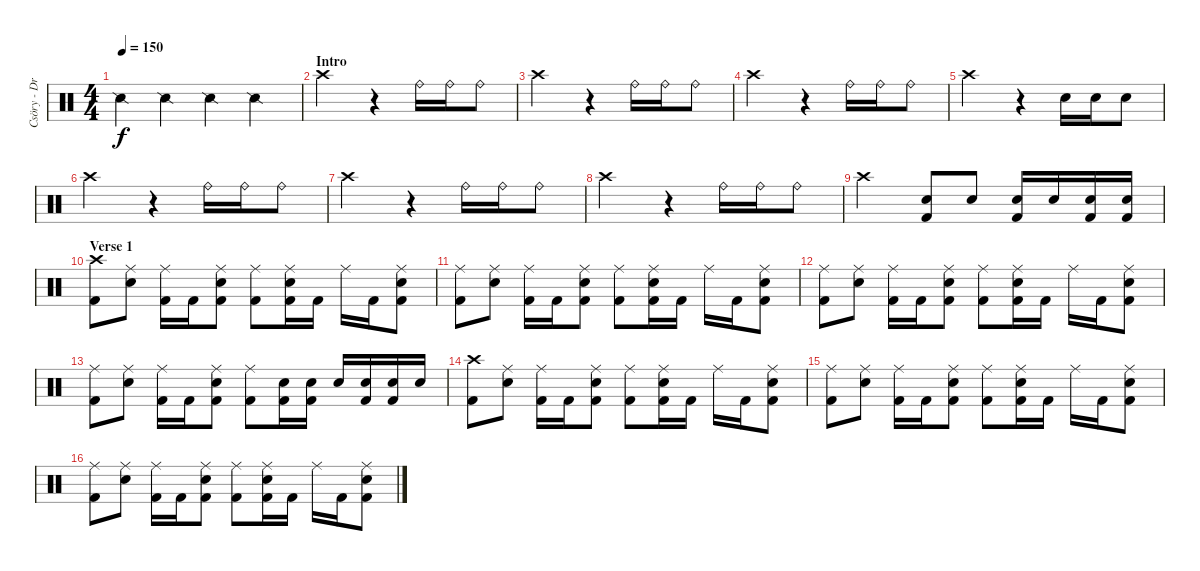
\track ("Csöry - DrumZ" "Csöry - Dr") {instrument percussion}
\staff {score}
\articulation defaults
\ts (4 4)
\tempo 150
\clef neutral
\ks c "Snare (side stick) 2".4{dy f} "Snare (side stick) 2".4 "Snare (side stick) 2".4 "Snare (side stick) 2".4
|
\section ("" "Intro")
"Crash high (hit)".2 r.4 "Ride (bell)".16 "Ride (bell)".16 "Ride (bell)".8 |
"Crash high (hit)".2 r.4 "Ride (bell)".16 "Ride (bell)".16 "Ride (bell)".8 |
"Crash high (hit)".2 r.4 "Ride (bell)".16 "Ride (bell)".16 "Ride (bell)".8 |
"Crash high (hit)".2 r.4 "Snare (hit) 2".16 "Snare (hit) 2".16 "Snare (hit) 2".8 |
"Crash high (hit)".2 r.4 "Ride (bell)".16 "Ride (bell)".16 "Ride (bell)".8 |
"Crash high (hit)".2 r.4 "Ride (bell)".16 "Ride (bell)".16 "Ride (bell)".8 |
"Crash high (hit)".2 r.4 "Ride (bell)".16 "Ride (bell)".16 "Ride (bell)".8 |
"Crash high (hit)".2 ("Snare (hit) 2" "Kick (hit) 2").8 "Snare (hit) 2".8 ("Snare (hit) 2" "Kick (hit) 2").16 "Snare (hit) 2".16 ("Snare (hit) 2" "Kick (hit) 2").16 ("Snare (hit) 2" "Kick (hit) 2").16 |
\section ("" "Verse 1")
("Crash high (hit)" "Kick (hit) 2").8 ("Ride (middle)" "Snare (hit) 2").8 ("Ride (middle)" "Kick (hit) 2").16 "Kick (hit) 2".16 ("Ride (middle)" "Snare (hit) 2" "Kick (hit) 2").8 ("Ride (middle)" "Kick (hit) 2").8 ("Ride (middle)" "Snare (hit) 2" "Kick (hit) 2").16 "Kick (hit) 2".16 "Ride (middle)".16 "Kick (hit) 2".16 ("Ride (middle)" "Snare (hit) 2" "Kick (hit) 2").8 |
("Ride (middle)" "Kick (hit) 2").8 ("Ride (middle)" "Snare (hit) 2").8 ("Ride (middle)" "Kick (hit) 2").16 "Kick (hit) 2".16 ("Ride (middle)" "Snare (hit) 2" "Kick (hit) 2").8 ("Ride (middle)" "Kick (hit) 2").8 ("Ride (middle)" "Snare (hit) 2" "Kick (hit) 2").16 "Kick (hit) 2".16 "Ride (middle)".16 "Kick (hit) 2".16 ("Ride (middle)" "Snare (hit) 2" "Kick (hit) 2").8 |
("Ride (middle)" "Kick (hit) 2").8 ("Ride (middle)" "Snare (hit) 2").8 ("Ride (middle)" "Kick (hit) 2").16 "Kick (hit) 2".16 ("Ride (middle)" "Snare (hit) 2" "Kick (hit) 2").8 ("Ride (middle)" "Kick (hit) 2").8 ("Ride (middle)" "Snare (hit) 2" "Kick (hit) 2").16 "Kick (hit) 2".16 "Ride (middle)".16 "Kick (hit) 2".16 ("Ride (middle)" "Snare (hit) 2" "Kick (hit) 2").8 |
("Ride (middle)" "Kick (hit) 2").8 ("Ride (middle)" "Snare (hit) 2").8 ("Ride (middle)" "Kick (hit) 2").16 "Kick (hit) 2".16 ("Ride (middle)" "Snare (hit) 2" "Kick (hit) 2").8 ("Ride (middle)" "Kick (hit) 2").8 ("Snare (hit) 2" "Kick (hit) 2").16 ("Snare (hit) 2" "Kick (hit) 2").16 "Snare (hit) 2".16 ("Snare (hit) 2" "Kick (hit) 2").16 ("Snare (hit) 2" "Kick (hit) 2").16 "Snare (hit) 2".16 |
("Crash high (hit)" "Kick (hit) 2").8 ("Ride (middle)" "Snare (hit) 2").8 ("Ride (middle)" "Kick (hit) 2").16 "Kick (hit) 2".16 ("Ride (middle)" "Snare (hit) 2" "Kick (hit) 2").8 ("Ride (middle)" "Kick (hit) 2").8 ("Ride (middle)" "Snare (hit) 2" "Kick (hit) 2").16 "Kick (hit) 2".16 "Ride (middle)".16 "Kick (hit) 2".16 ("Ride (middle)" "Snare (hit) 2" "Kick (hit) 2").8 |
("Ride (middle)" "Kick (hit) 2").8 ("Ride (middle)" "Snare (hit) 2").8 ("Ride (middle)" "Kick (hit) 2").16 "Kick (hit) 2".16 ("Ride (middle)" "Snare (hit) 2" "Kick (hit) 2").8 ("Ride (middle)" "Kick (hit) 2").8 ("Ride (middle)" "Snare (hit) 2" "Kick (hit) 2").16 "Kick (hit) 2".16 "Ride (middle)".16 "Kick (hit) 2".16 ("Ride (middle)" "Snare (hit) 2" "Kick (hit) 2").8 |
("Ride (middle)" "Kick (hit) 2").8 ("Ride (middle)" "Snare (hit) 2").8 ("Ride (middle)" "Kick (hit) 2").16 "Kick (hit) 2".16 ("Ride (middle)" "Snare (hit) 2" "Kick (hit) 2").8 ("Ride (middle)" "Kick (hit) 2").8 ("Ride (middle)" "Snare (hit) 2" "Kick (hit) 2").16 "Kick (hit) 2".16 "Ride (middle)".16 "Kick (hit) 2".16 ("Ride (middle)" "Snare (hit) 2" "Kick (hit) 2").8
